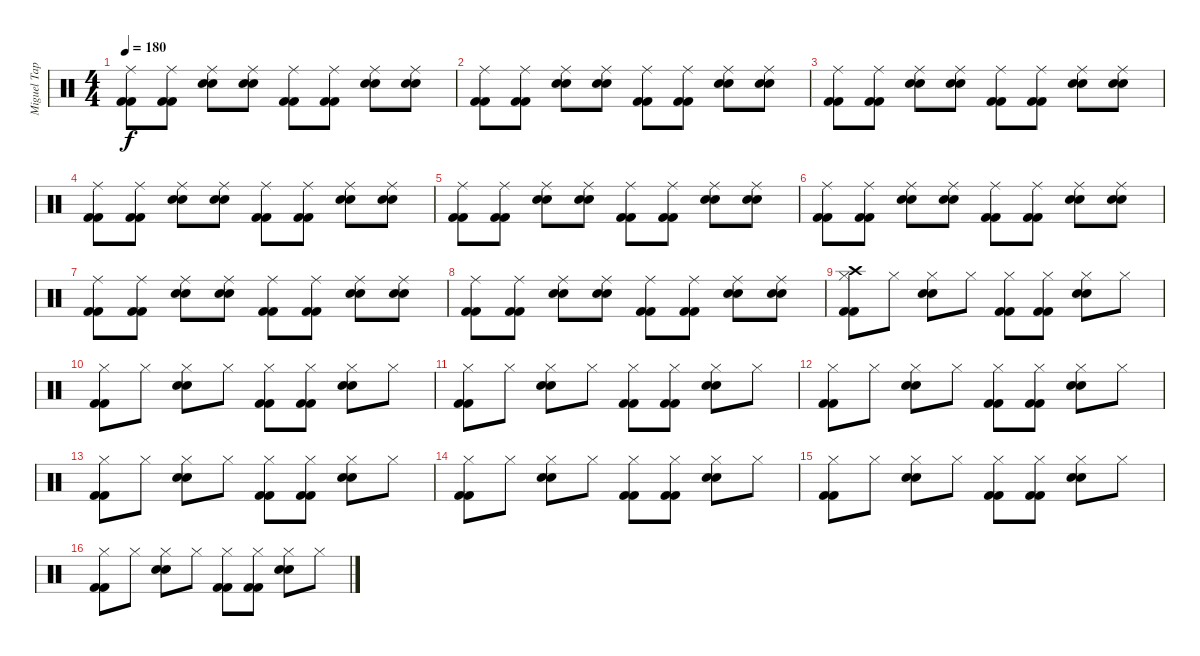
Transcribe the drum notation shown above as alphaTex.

\track ("Miguel Tapia" "Miguel Tap") {instrument percussion}
\staff {score}
\articulation defaults
\ts (4 4)
\tempo 180
\clef neutral
\ks c
("Ride (middle)" "Kick (hit) 2" "Kick (hit) 2").8{dy f} ("Ride (middle)" "Kick (hit) 2" "Kick (hit) 2").8 ("Ride (middle)" "Electric Snare (hit)" "Electric Snare (hit)").8 ("Ride (middle)" "Electric Snare (hit)" "Electric Snare (hit)").8 ("Ride (middle)" "Kick (hit) 2" "Kick (hit) 2").8 ("Ride (middle)" "Kick (hit) 2" "Kick (hit) 2").8 ("Ride (middle)" "Electric Snare (hit)" "Electric Snare (hit)").8 ("Ride (middle)" "Electric Snare (hit)" "Electric Snare (hit)").8 |
("Ride (middle)" "Kick (hit) 2" "Kick (hit) 2").8 ("Ride (middle)" "Kick (hit) 2" "Kick (hit) 2").8 ("Ride (middle)" "Electric Snare (hit)" "Electric Snare (hit)").8 ("Ride (middle)" "Electric Snare (hit)" "Electric Snare (hit)").8 ("Ride (middle)" "Kick (hit) 2" "Kick (hit) 2").8 ("Ride (middle)" "Kick (hit) 2" "Kick (hit) 2").8 ("Ride (middle)" "Electric Snare (hit)" "Electric Snare (hit)").8 ("Ride (middle)" "Electric Snare (hit)" "Electric Snare (hit)").8 |
("Ride (middle)" "Kick (hit) 2" "Kick (hit) 2").8 ("Ride (middle)" "Kick (hit) 2" "Kick (hit) 2").8 ("Ride (middle)" "Electric Snare (hit)" "Electric Snare (hit)").8 ("Ride (middle)" "Electric Snare (hit)" "Electric Snare (hit)").8 ("Ride (middle)" "Kick (hit) 2" "Kick (hit) 2").8 ("Ride (middle)" "Kick (hit) 2" "Kick (hit) 2").8 ("Ride (middle)" "Electric Snare (hit)" "Electric Snare (hit)").8 ("Ride (middle)" "Electric Snare (hit)" "Electric Snare (hit)").8 |
("Ride (middle)" "Kick (hit) 2" "Kick (hit) 2").8 ("Ride (middle)" "Kick (hit) 2" "Kick (hit) 2").8 ("Ride (middle)" "Electric Snare (hit)" "Electric Snare (hit)").8 ("Ride (middle)" "Electric Snare (hit)" "Electric Snare (hit)").8 ("Ride (middle)" "Kick (hit) 2" "Kick (hit) 2").8 ("Ride (middle)" "Kick (hit) 2" "Kick (hit) 2").8 ("Ride (middle)" "Electric Snare (hit)" "Electric Snare (hit)").8 ("Ride (middle)" "Electric Snare (hit)" "Electric Snare (hit)").8 |
("Ride (middle)" "Kick (hit) 2" "Kick (hit) 2").8 ("Ride (middle)" "Kick (hit) 2" "Kick (hit) 2").8 ("Ride (middle)" "Electric Snare (hit)" "Electric Snare (hit)").8 ("Ride (middle)" "Electric Snare (hit)" "Electric Snare (hit)").8 ("Ride (middle)" "Kick (hit) 2" "Kick (hit) 2").8 ("Ride (middle)" "Kick (hit) 2" "Kick (hit) 2").8 ("Ride (middle)" "Electric Snare (hit)" "Electric Snare (hit)").8 ("Ride (middle)" "Electric Snare (hit)" "Electric Snare (hit)").8 |
("Ride (middle)" "Kick (hit) 2" "Kick (hit) 2").8 ("Ride (middle)" "Kick (hit) 2" "Kick (hit) 2").8 ("Ride (middle)" "Electric Snare (hit)" "Electric Snare (hit)").8 ("Ride (middle)" "Electric Snare (hit)" "Electric Snare (hit)").8 ("Ride (middle)" "Kick (hit) 2" "Kick (hit) 2").8 ("Ride (middle)" "Kick (hit) 2" "Kick (hit) 2").8 ("Ride (middle)" "Electric Snare (hit)" "Electric Snare (hit)").8 ("Ride (middle)" "Electric Snare (hit)" "Electric Snare (hit)").8 |
("Ride (middle)" "Kick (hit) 2" "Kick (hit) 2").8 ("Ride (middle)" "Kick (hit) 2" "Kick (hit) 2").8 ("Ride (middle)" "Electric Snare (hit)" "Electric Snare (hit)").8 ("Ride (middle)" "Electric Snare (hit)" "Electric Snare (hit)").8 ("Ride (middle)" "Kick (hit) 2" "Kick (hit) 2").8 ("Ride (middle)" "Kick (hit) 2" "Kick (hit) 2").8 ("Ride (middle)" "Electric Snare (hit)" "Electric Snare (hit)").8 ("Ride (middle)" "Electric Snare (hit)" "Electric Snare (hit)").8 |
("Ride (middle)" "Kick (hit) 2" "Kick (hit) 2").8 ("Ride (middle)" "Kick (hit) 2" "Kick (hit) 2").8 ("Ride (middle)" "Electric Snare (hit)" "Electric Snare (hit)").8 ("Ride (middle)" "Electric Snare (hit)" "Electric Snare (hit)").8 ("Ride (middle)" "Kick (hit) 2" "Kick (hit) 2").8 ("Ride (middle)" "Kick (hit) 2" "Kick (hit) 2").8 ("Ride (middle)" "Electric Snare (hit)" "Electric Snare (hit)").8 ("Ride (middle)" "Electric Snare (hit)" "Electric Snare (hit)").8 |
("Hi-Hat (closed)" "Kick (hit) 2" "Kick (hit) 2" "Crash high (hit)").8 "Hi-Hat (closed)".8 ("Hi-Hat (closed)" "Electric Snare (hit)" "Electric Snare (hit)").8 "Hi-Hat (closed)".8 ("Hi-Hat (closed)" "Kick (hit) 2" "Kick (hit) 2").8 ("Hi-Hat (closed)" "Kick (hit) 2" "Kick (hit) 2").8 ("Hi-Hat (closed)" "Electric Snare (hit)" "Electric Snare (hit)").8 "Hi-Hat (closed)".8 |
("Hi-Hat (closed)" "Kick (hit) 2" "Kick (hit) 2").8 "Hi-Hat (closed)".8 ("Hi-Hat (closed)" "Electric Snare (hit)" "Electric Snare (hit)").8 "Hi-Hat (closed)".8 ("Hi-Hat (closed)" "Kick (hit) 2" "Kick (hit) 2").8 ("Hi-Hat (closed)" "Kick (hit) 2" "Kick (hit) 2").8 ("Hi-Hat (closed)" "Electric Snare (hit)" "Electric Snare (hit)").8 "Hi-Hat (closed)".8 |
("Hi-Hat (closed)" "Kick (hit) 2" "Kick (hit) 2").8 "Hi-Hat (closed)".8 ("Hi-Hat (closed)" "Electric Snare (hit)" "Electric Snare (hit)").8 "Hi-Hat (closed)".8 ("Hi-Hat (closed)" "Kick (hit) 2" "Kick (hit) 2").8 ("Hi-Hat (closed)" "Kick (hit) 2" "Kick (hit) 2").8 ("Hi-Hat (closed)" "Electric Snare (hit)" "Electric Snare (hit)").8 "Hi-Hat (closed)".8 |
("Hi-Hat (closed)" "Kick (hit) 2" "Kick (hit) 2").8 "Hi-Hat (closed)".8 ("Hi-Hat (closed)" "Electric Snare (hit)" "Electric Snare (hit)").8 "Hi-Hat (closed)".8 ("Hi-Hat (closed)" "Kick (hit) 2" "Kick (hit) 2").8 ("Hi-Hat (closed)" "Kick (hit) 2" "Kick (hit) 2").8 ("Hi-Hat (closed)" "Electric Snare (hit)" "Electric Snare (hit)").8 "Hi-Hat (closed)".8 |
("Hi-Hat (closed)" "Kick (hit) 2" "Kick (hit) 2").8 "Hi-Hat (closed)".8 ("Hi-Hat (closed)" "Electric Snare (hit)" "Electric Snare (hit)").8 "Hi-Hat (closed)".8 ("Hi-Hat (closed)" "Kick (hit) 2" "Kick (hit) 2").8 ("Hi-Hat (closed)" "Kick (hit) 2" "Kick (hit) 2").8 ("Hi-Hat (closed)" "Electric Snare (hit)" "Electric Snare (hit)").8 "Hi-Hat (closed)".8 |
("Hi-Hat (closed)" "Kick (hit) 2" "Kick (hit) 2").8 "Hi-Hat (closed)".8 ("Hi-Hat (closed)" "Electric Snare (hit)" "Electric Snare (hit)").8 "Hi-Hat (closed)".8 ("Hi-Hat (closed)" "Kick (hit) 2" "Kick (hit) 2").8 ("Hi-Hat (closed)" "Kick (hit) 2" "Kick (hit) 2").8 ("Hi-Hat (closed)" "Electric Snare (hit)" "Electric Snare (hit)").8 "Hi-Hat (closed)".8 |
("Hi-Hat (closed)" "Kick (hit) 2" "Kick (hit) 2").8 "Hi-Hat (closed)".8 ("Hi-Hat (closed)" "Electric Snare (hit)" "Electric Snare (hit)").8 "Hi-Hat (closed)".8 ("Hi-Hat (closed)" "Kick (hit) 2" "Kick (hit) 2").8 ("Hi-Hat (closed)" "Kick (hit) 2" "Kick (hit) 2").8 ("Hi-Hat (closed)" "Electric Snare (hit)" "Electric Snare (hit)").8 "Hi-Hat (closed)".8 |
("Hi-Hat (closed)" "Kick (hit) 2" "Kick (hit) 2").8 "Hi-Hat (closed)".8 ("Hi-Hat (closed)" "Electric Snare (hit)" "Electric Snare (hit)").8 "Hi-Hat (closed)".8 ("Hi-Hat (closed)" "Kick (hit) 2" "Kick (hit) 2").8 ("Hi-Hat (closed)" "Kick (hit) 2" "Kick (hit) 2").8 ("Hi-Hat (closed)" "Electric Snare (hit)" "Electric Snare (hit)").8 "Hi-Hat (closed)".8
